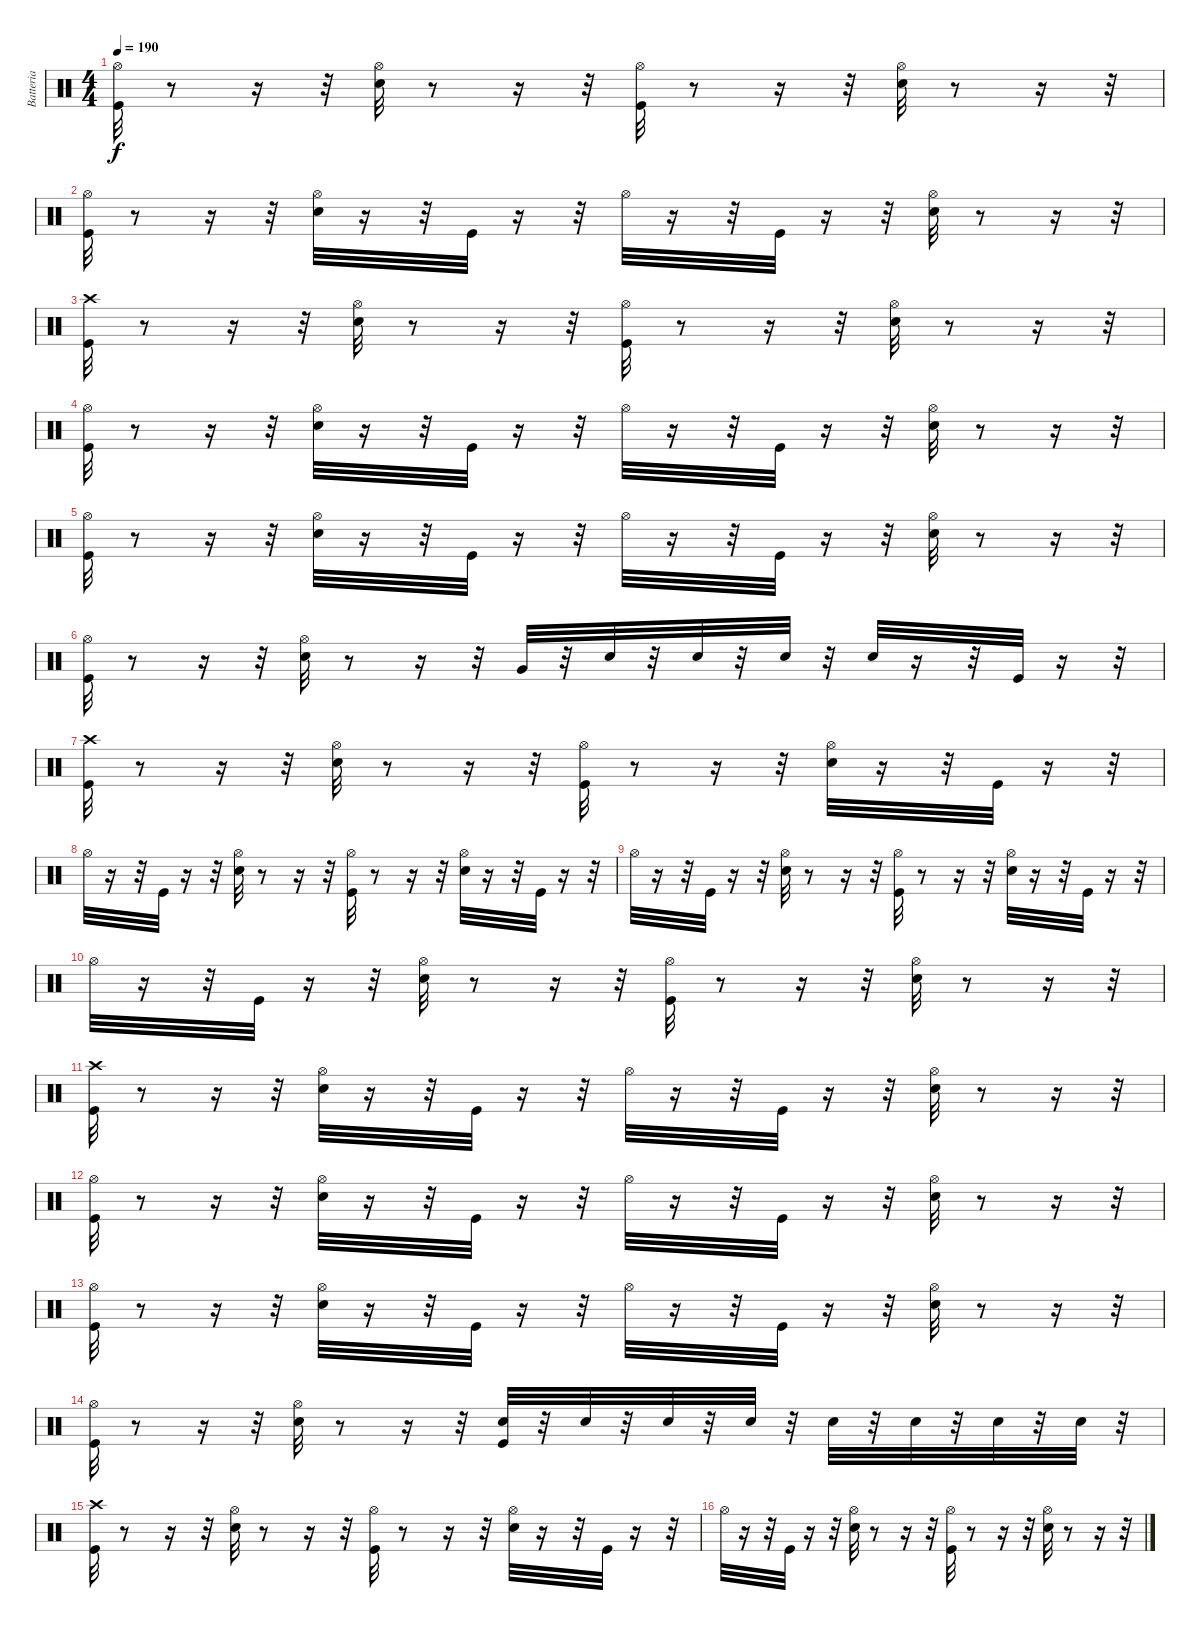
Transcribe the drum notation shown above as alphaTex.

\track ("Batteria" "Batteria") {instrument percussion}
\staff {score}
\articulation defaults
\ts (4 4)
\tempo 190
\clef neutral
\ks c
("Hi-Hat (open)" "Kick (hit)").32{dy f} r.8 r.16 r.32 ("Snare (hit) 2" "Hi-Hat (open)").32 r.8 r.16 r.32 ("Hi-Hat (open)" "Kick (hit)").32 r.8 r.16 r.32 ("Hi-Hat (open)" "Snare (hit) 2").32 r.8 r.16 r.32 |
("Kick (hit)" "Hi-Hat (open)").32 r.8 r.16 r.32 ("Hi-Hat (open)" "Snare (hit) 2").32 r.16 r.32 "Kick (hit)".32 r.16 r.32 "Hi-Hat (open)".32 r.16 r.32 "Kick (hit)".32 r.16 r.32 ("Hi-Hat (open)" "Snare (hit) 2").32 r.8 r.16 r.32 |
("Crash high (hit)" "Kick (hit)").32 r.8 r.16 r.32 ("Snare (hit) 2" "Hi-Hat (open)").32 r.8 r.16 r.32 ("Hi-Hat (open)" "Kick (hit)").32 r.8 r.16 r.32 ("Hi-Hat (open)" "Snare (hit) 2").32 r.8 r.16 r.32 |
("Kick (hit)" "Hi-Hat (open)").32 r.8 r.16 r.32 ("Hi-Hat (open)" "Snare (hit) 2").32 r.16 r.32 "Kick (hit)".32 r.16 r.32 "Hi-Hat (open)".32 r.16 r.32 "Kick (hit)".32 r.16 r.32 ("Hi-Hat (open)" "Snare (hit) 2").32 r.8 r.16 r.32 |
("Hi-Hat (open)" "Kick (hit)").32 r.8 r.16 r.32 ("Snare (hit) 2" "Hi-Hat (open)").32 r.16 r.32 "Kick (hit)".32 r.16 r.32 "Hi-Hat (open)".32 r.16 r.32 "Kick (hit)".32 r.16 r.32 ("Hi-Hat (open)" "Snare (hit) 2").32 r.8 r.16 r.32 |
("Kick (hit)" "Hi-Hat (open)").32 r.8 r.16 r.32 ("Hi-Hat (open)" "Snare (hit) 2").32 r.8 r.16 r.32 "Very Low Tom (hit)".32 r.32 "Snare (hit) 2".32 r.32 "Snare (hit) 2".32 r.32 "Snare (hit) 2".32 r.32 "Snare (hit) 2".32 r.16 r.32 "Kick (hit)".32 r.16 r.32 |
("Crash high (hit)" "Kick (hit)").32 r.8 r.16 r.32 ("Snare (hit) 2" "Hi-Hat (open)").32 r.8 r.16 r.32 ("Hi-Hat (open)" "Kick (hit)").32 r.8 r.16 r.32 ("Hi-Hat (open)" "Snare (hit) 2").32 r.16 r.32 "Kick (hit)".32 r.16 r.32 |
"Hi-Hat (open)".32 r.16 r.32 "Kick (hit)".32 r.16 r.32 ("Hi-Hat (open)" "Snare (hit) 2").32 r.8 r.16 r.32 ("Hi-Hat (open)" "Kick (hit)").32 r.8 r.16 r.32 ("Hi-Hat (open)" "Snare (hit) 2").32 r.16 r.32 "Kick (hit)".32 r.16 r.32 |
"Hi-Hat (open)".32 r.16 r.32 "Kick (hit)".32 r.16 r.32 ("Snare (hit) 2" "Hi-Hat (open)").32 r.8 r.16 r.32 ("Hi-Hat (open)" "Kick (hit)").32 r.8 r.16 r.32 ("Hi-Hat (open)" "Snare (hit) 2").32 r.16 r.32 "Kick (hit)".32 r.16 r.32 |
"Hi-Hat (open)".32 r.16 r.32 "Kick (hit)".32 r.16 r.32 ("Hi-Hat (open)" "Snare (hit) 2").32 r.8 r.16 r.32 ("Hi-Hat (open)" "Kick (hit)").32 r.8 r.16 r.32 ("Hi-Hat (open)" "Snare (hit) 2").32 r.8 r.16 r.32 |
("Crash high (hit)" "Kick (hit)").32 r.8 r.16 r.32 ("Snare (hit) 2" "Hi-Hat (open)").32 r.16 r.32 "Kick (hit)".32 r.16 r.32 "Hi-Hat (open)".32 r.16 r.32 "Kick (hit)".32 r.16 r.32 ("Hi-Hat (open)" "Snare (hit) 2").32 r.8 r.16 r.32 |
("Kick (hit)" "Hi-Hat (open)").32 r.8 r.16 r.32 ("Hi-Hat (open)" "Snare (hit) 2").32 r.16 r.32 "Kick (hit)".32 r.16 r.32 "Hi-Hat (open)".32 r.16 r.32 "Kick (hit)".32 r.16 r.32 ("Hi-Hat (open)" "Snare (hit) 2").32 r.8 r.16 r.32 |
("Hi-Hat (open)" "Kick (hit)").32 r.8 r.16 r.32 ("Snare (hit) 2" "Hi-Hat (open)").32 r.16 r.32 "Kick (hit)".32 r.16 r.32 "Hi-Hat (open)".32 r.16 r.32 "Kick (hit)".32 r.16 r.32 ("Hi-Hat (open)" "Snare (hit) 2").32 r.8 r.16 r.32 |
("Kick (hit)" "Hi-Hat (open)").32 r.8 r.16 r.32 ("Hi-Hat (open)" "Snare (hit) 2").32 r.8 r.16 r.32 ("Snare (hit) 2" "Kick (hit)").32 r.32 "Snare (hit) 2".32 r.32 "Snare (hit) 2".32 r.32 "Snare (hit) 2".32 r.32 "Snare (hit) 2".32 r.32 "Snare (hit) 2".32 r.32 "Snare (hit) 2".32 r.32 "Snare (hit) 2".32 r.32 |
("Crash high (hit)" "Kick (hit)").32 r.8 r.16 r.32 ("Snare (hit) 2" "Hi-Hat (open)").32 r.8 r.16 r.32 ("Hi-Hat (open)" "Kick (hit)").32 r.8 r.16 r.32 ("Hi-Hat (open)" "Snare (hit) 2").32 r.16 r.32 "Kick (hit)".32 r.16 r.32 |
"Hi-Hat (open)".32 r.16 r.32 "Kick (hit)".32 r.16 r.32 ("Hi-Hat (open)" "Snare (hit) 2").32 r.8 r.16 r.32 ("Hi-Hat (open)" "Kick (hit)").32 r.8 r.16 r.32 ("Hi-Hat (open)" "Snare (hit) 2").32 r.8 r.16 r.32
